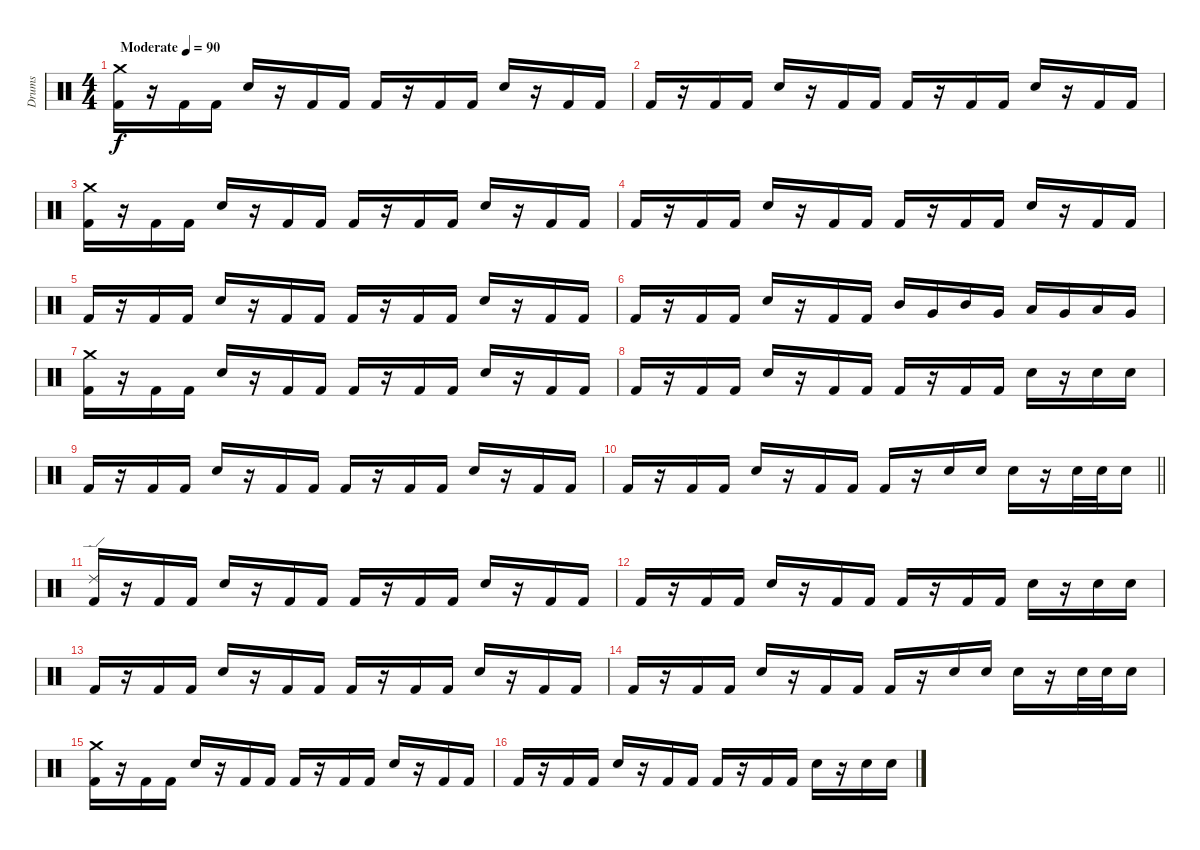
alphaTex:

\track ("Drums" "Drums") {instrument percussion}
\staff {score}
\articulation defaults
\ts (4 4)
\tempo (90 "Moderate")
\clef neutral
\ks c
("Crash medium (hit)" "Kick (hit) 2").16{dy f} r.16 "Kick (hit) 2".16 "Kick (hit) 2".16 "Electric Snare (hit)".16 r.16 "Kick (hit) 2".16 "Kick (hit) 2".16 "Kick (hit) 2".16 r.16 "Kick (hit) 2".16 "Kick (hit) 2".16 "Electric Snare (hit)".16 r.16 "Kick (hit) 2".16 "Kick (hit) 2".16 |
"Kick (hit) 2".16 r.16 "Kick (hit) 2".16 "Kick (hit) 2".16 "Electric Snare (hit)".16 r.16 "Kick (hit) 2".16 "Kick (hit) 2".16 "Kick (hit) 2".16 r.16 "Kick (hit) 2".16 "Kick (hit) 2".16 "Electric Snare (hit)".16 r.16 "Kick (hit) 2".16 "Kick (hit) 2".16 |
("Crash medium (hit)" "Kick (hit) 2").16 r.16 "Kick (hit) 2".16 "Kick (hit) 2".16 "Electric Snare (hit)".16 r.16 "Kick (hit) 2".16 "Kick (hit) 2".16 "Kick (hit) 2".16 r.16 "Kick (hit) 2".16 "Kick (hit) 2".16 "Electric Snare (hit)".16 r.16 "Kick (hit) 2".16 "Kick (hit) 2".16 |
"Kick (hit) 2".16 r.16 "Kick (hit) 2".16 "Kick (hit) 2".16 "Electric Snare (hit)".16 r.16 "Kick (hit) 2".16 "Kick (hit) 2".16 "Kick (hit) 2".16 r.16 "Kick (hit) 2".16 "Kick (hit) 2".16 "Electric Snare (hit)".16 r.16 "Kick (hit) 2".16 "Kick (hit) 2".16 |
"Kick (hit) 2".16 r.16 "Kick (hit) 2".16 "Kick (hit) 2".16 "Electric Snare (hit)".16 r.16 "Kick (hit) 2".16 "Kick (hit) 2".16 "Kick (hit) 2".16 r.16 "Kick (hit) 2".16 "Kick (hit) 2".16 "Electric Snare (hit)".16 r.16 "Kick (hit) 2".16 "Kick (hit) 2".16 |
"Kick (hit) 2".16 r.16 "Kick (hit) 2".16 "Kick (hit) 2".16 "Electric Snare (hit)".16 r.16 "Kick (hit) 2".16 "Kick (hit) 2".16 "Mid Tom (hit)".16 "Very Low Tom (hit)".16 "Mid Tom (hit)".16 "Very Low Tom (hit)".16 "Low Tom (hit)".16 "Very Low Tom (hit)".16 "Low Tom (hit)".16 "Very Low Tom (hit)".16 |
("Crash medium (hit)" "Kick (hit) 2").16 r.16 "Kick (hit) 2".16 "Kick (hit) 2".16 "Electric Snare (hit)".16 r.16 "Kick (hit) 2".16 "Kick (hit) 2".16 "Kick (hit) 2".16 r.16 "Kick (hit) 2".16 "Kick (hit) 2".16 "Electric Snare (hit)".16 r.16 "Kick (hit) 2".16 "Kick (hit) 2".16 |
"Kick (hit) 2".16 r.16 "Kick (hit) 2".16 "Kick (hit) 2".16 "Electric Snare (hit)".16 r.16 "Kick (hit) 2".16 "Kick (hit) 2".16 "Kick (hit) 2".16 r.16 "Kick (hit) 2".16 "Kick (hit) 2".16 "Electric Snare (hit)".16 r.16 "Electric Snare (hit)".16 "Electric Snare (hit)".16 |
"Kick (hit) 2".16 r.16 "Kick (hit) 2".16 "Kick (hit) 2".16 "Electric Snare (hit)".16 r.16 "Kick (hit) 2".16 "Kick (hit) 2".16 "Kick (hit) 2".16 r.16 "Kick (hit) 2".16 "Kick (hit) 2".16 "Electric Snare (hit)".16 r.16 "Kick (hit) 2".16 "Kick (hit) 2".16 |
\barLineRight lightlight "Kick (hit) 2".16
r.16 "Kick (hit) 2".16 "Kick (hit) 2".16 "Electric Snare (hit)".16 r.16 "Kick (hit) 2".16 "Kick (hit) 2".16 "Kick (hit) 2".16 r.16 "Electric Snare (hit)".16 "Electric Snare (hit)".16 "Electric Snare (hit)".16 r.16 "Electric Snare (hit)".32 "Electric Snare (hit)".32 "Electric Snare (hit)".16 |
\section ("" "")
("Ride (edge) 2" "Kick (hit) 2").16 r.16 "Kick (hit) 2".16 "Kick (hit) 2".16 "Electric Snare (hit)".16 r.16 "Kick (hit) 2".16 "Kick (hit) 2".16 "Kick (hit) 2".16 r.16 "Kick (hit) 2".16 "Kick (hit) 2".16 "Electric Snare (hit)".16 r.16 "Kick (hit) 2".16 "Kick (hit) 2".16 |
"Kick (hit) 2".16 r.16 "Kick (hit) 2".16 "Kick (hit) 2".16 "Electric Snare (hit)".16 r.16 "Kick (hit) 2".16 "Kick (hit) 2".16 "Kick (hit) 2".16 r.16 "Kick (hit) 2".16 "Kick (hit) 2".16 "Electric Snare (hit)".16 r.16 "Electric Snare (hit)".16 "Electric Snare (hit)".16 |
"Kick (hit) 2".16 r.16 "Kick (hit) 2".16 "Kick (hit) 2".16 "Electric Snare (hit)".16 r.16 "Kick (hit) 2".16 "Kick (hit) 2".16 "Kick (hit) 2".16 r.16 "Kick (hit) 2".16 "Kick (hit) 2".16 "Electric Snare (hit)".16 r.16 "Kick (hit) 2".16 "Kick (hit) 2".16 |
"Kick (hit) 2".16 r.16 "Kick (hit) 2".16 "Kick (hit) 2".16 "Electric Snare (hit)".16 r.16 "Kick (hit) 2".16 "Kick (hit) 2".16 "Kick (hit) 2".16 r.16 "Electric Snare (hit)".16 "Electric Snare (hit)".16 "Electric Snare (hit)".16 r.16 "Electric Snare (hit)".32 "Electric Snare (hit)".32 "Electric Snare (hit)".16 |
("Crash medium (hit)" "Kick (hit) 2").16 r.16 "Kick (hit) 2".16 "Kick (hit) 2".16 "Electric Snare (hit)".16 r.16 "Kick (hit) 2".16 "Kick (hit) 2".16 "Kick (hit) 2".16 r.16 "Kick (hit) 2".16 "Kick (hit) 2".16 "Electric Snare (hit)".16 r.16 "Kick (hit) 2".16 "Kick (hit) 2".16 |
"Kick (hit) 2".16 r.16 "Kick (hit) 2".16 "Kick (hit) 2".16 "Electric Snare (hit)".16 r.16 "Kick (hit) 2".16 "Kick (hit) 2".16 "Kick (hit) 2".16 r.16 "Kick (hit) 2".16 "Kick (hit) 2".16 "Electric Snare (hit)".16 r.16 "Electric Snare (hit)".16 "Electric Snare (hit)".16
